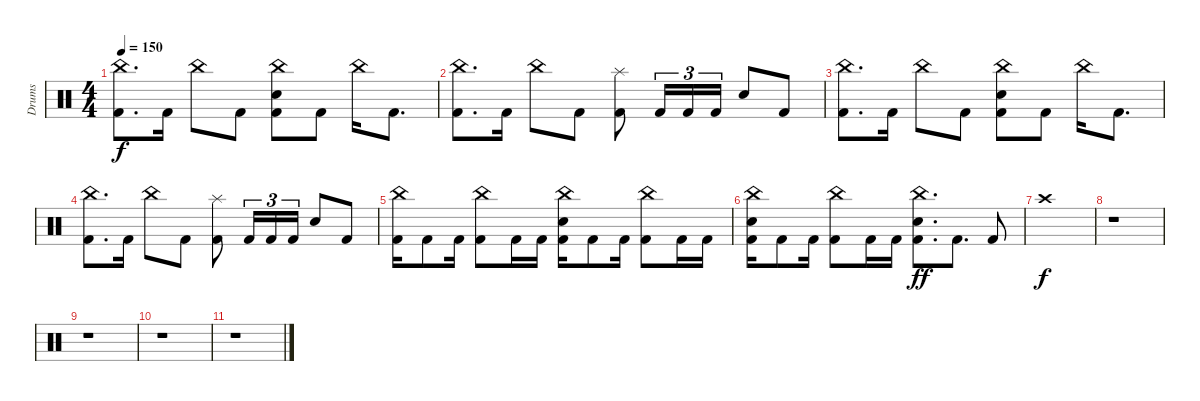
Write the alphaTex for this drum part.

\track ("Drums" "Drums") {instrument percussion}
\staff {score}
\articulation defaults
\ts (4 4)
\tempo 150
\clef neutral
\ks c
("China (hit)" "Kick (hit) 2").8{d dy f} "Kick (hit) 2".16 "China (hit)".8 "Kick (hit) 2".8 ("China (hit)" "Electric Snare (hit)" "Kick (hit) 2").8 "Kick (hit) 2".8 "China (hit)".16 "Kick (hit) 2".8{d} |
("China (hit)" "Kick (hit) 2").8{d} "Kick (hit) 2".16 "China (hit)".8 "Kick (hit) 2".8 ("Splash (hit)" "Kick (hit) 2").8 "Kick (hit) 2".16{tu (3 2)} "Kick (hit) 2".16{tu (3 2)} "Kick (hit) 2".16{tu (3 2)} "Electric Snare (hit)".8 "Kick (hit) 2".8 |
("China (hit)" "Kick (hit) 2").8{d} "Kick (hit) 2".16 "China (hit)".8 "Kick (hit) 2".8 ("China (hit)" "Electric Snare (hit)" "Kick (hit) 2").8 "Kick (hit) 2".8 "China (hit)".16 "Kick (hit) 2".8{d} |
("China (hit)" "Kick (hit) 2").8{d} "Kick (hit) 2".16 "China (hit)".8 "Kick (hit) 2".8 ("Splash (hit)" "Kick (hit) 2").8 "Kick (hit) 2".16{tu (3 2)} "Kick (hit) 2".16{tu (3 2)} "Kick (hit) 2".16{tu (3 2)} "Electric Snare (hit)".8 "Kick (hit) 2".8 |
("China (hit)" "Kick (hit) 2").16 "Kick (hit) 2".8 "Kick (hit) 2".16 ("China (hit)" "Kick (hit) 2").8 "Kick (hit) 2".16 "Kick (hit) 2".16 ("China (hit)" "Electric Snare (hit)" "Kick (hit) 2").16 "Kick (hit) 2".8 "Kick (hit) 2".16 ("China (hit)" "Kick (hit) 2").8 "Kick (hit) 2".16 "Kick (hit) 2".16 |
("China (hit)" "Electric Snare (hit)" "Kick (hit) 2").16 "Kick (hit) 2".8 "Kick (hit) 2".16 ("China (hit)" "Kick (hit) 2").8 "Kick (hit) 2".16 "Kick (hit) 2".16 ("China (hit)" "Electric Snare (hit)" "Kick (hit) 2").8{d dy ff} "Kick (hit) 2".8{d} "Kick (hit) 2".8 |
"Crash high (hit)".1{dy f} |
r.1 |
r.1 |
r.1 |
r.1
